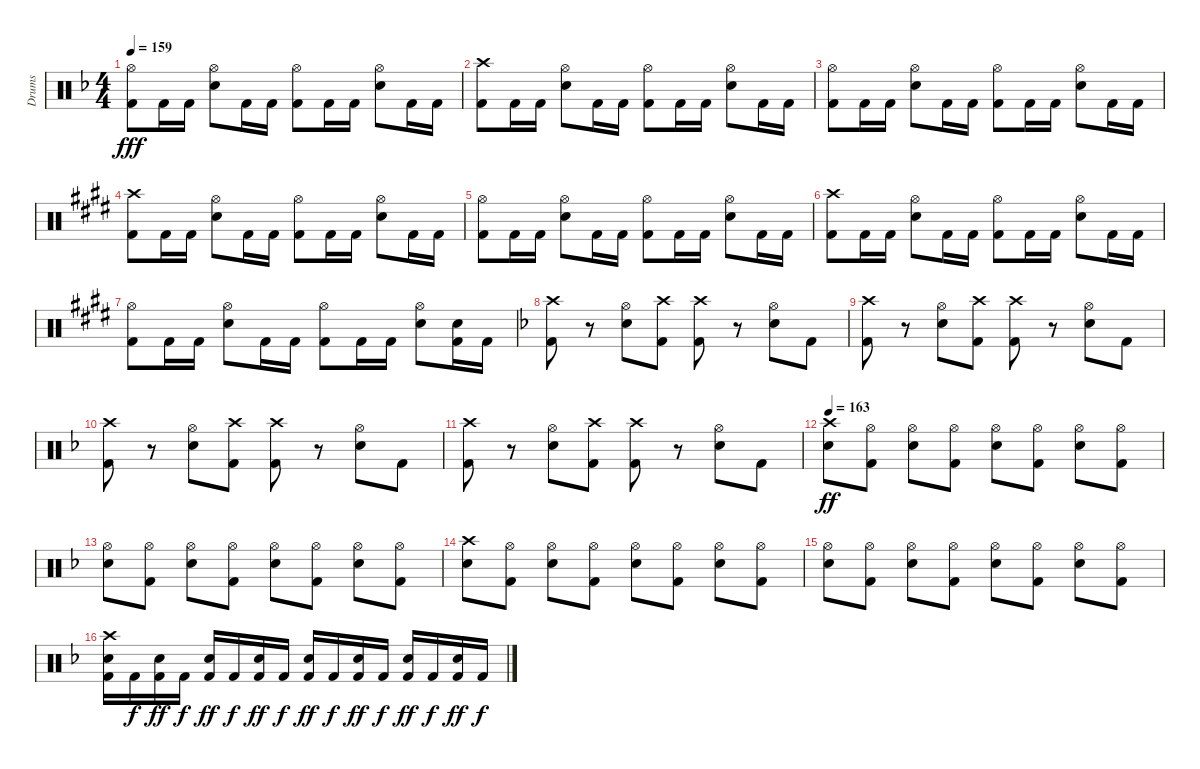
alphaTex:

\track ("Drums" "Drums") {instrument percussion}
\staff {score}
\articulation defaults
\ts (4 4)
\tempo 159
\clef neutral
\ks f
("Hi-Hat (open)" "Kick (hit) 2").8{dy fff} "Kick (hit) 2".16 "Kick (hit) 2".16 ("Hi-Hat (open)" "Snare (hit) 2").8 "Kick (hit) 2".16 "Kick (hit) 2".16 ("Hi-Hat (open)" "Kick (hit) 2").8 "Kick (hit) 2".16 "Kick (hit) 2".16 ("Hi-Hat (open)" "Snare (hit) 2").8 "Kick (hit) 2".16 "Kick (hit) 2".16 |
("Crash high (hit)" "Kick (hit) 2").8 "Kick (hit) 2".16 "Kick (hit) 2".16 ("Hi-Hat (open)" "Snare (hit) 2").8 "Kick (hit) 2".16 "Kick (hit) 2".16 ("Hi-Hat (open)" "Kick (hit) 2").8 "Kick (hit) 2".16 "Kick (hit) 2".16 ("Hi-Hat (open)" "Snare (hit) 2").8 "Kick (hit) 2".16 "Kick (hit) 2".16 |
("Hi-Hat (open)" "Kick (hit) 2").8 "Kick (hit) 2".16 "Kick (hit) 2".16 ("Hi-Hat (open)" "Snare (hit) 2").8 "Kick (hit) 2".16 "Kick (hit) 2".16 ("Hi-Hat (open)" "Kick (hit) 2").8 "Kick (hit) 2".16 "Kick (hit) 2".16 ("Hi-Hat (open)" "Snare (hit) 2").8 "Kick (hit) 2".16 "Kick (hit) 2".16 |
\ks e
("Crash high (hit)" "Kick (hit) 2").8 "Kick (hit) 2".16 "Kick (hit) 2".16 ("Hi-Hat (open)" "Snare (hit) 2").8 "Kick (hit) 2".16 "Kick (hit) 2".16 ("Hi-Hat (open)" "Kick (hit) 2").8 "Kick (hit) 2".16 "Kick (hit) 2".16 ("Hi-Hat (open)" "Snare (hit) 2").8 "Kick (hit) 2".16 "Kick (hit) 2".16 |
("Hi-Hat (open)" "Kick (hit) 2").8 "Kick (hit) 2".16 "Kick (hit) 2".16 ("Hi-Hat (open)" "Snare (hit) 2").8 "Kick (hit) 2".16 "Kick (hit) 2".16 ("Hi-Hat (open)" "Kick (hit) 2").8 "Kick (hit) 2".16 "Kick (hit) 2".16 ("Hi-Hat (open)" "Snare (hit) 2").8 "Kick (hit) 2".16 "Kick (hit) 2".16 |
("Crash high (hit)" "Kick (hit) 2").8 "Kick (hit) 2".16 "Kick (hit) 2".16 ("Hi-Hat (open)" "Snare (hit) 2").8 "Kick (hit) 2".16 "Kick (hit) 2".16 ("Hi-Hat (open)" "Kick (hit) 2").8 "Kick (hit) 2".16 "Kick (hit) 2".16 ("Hi-Hat (open)" "Snare (hit) 2").8 "Kick (hit) 2".16 "Kick (hit) 2".16 |
("Hi-Hat (open)" "Kick (hit) 2").8 "Kick (hit) 2".16 "Kick (hit) 2".16 ("Hi-Hat (open)" "Snare (hit) 2").8 "Kick (hit) 2".16 "Kick (hit) 2".16 ("Hi-Hat (open)" "Kick (hit) 2").8 "Kick (hit) 2".16 "Kick (hit) 2".16 ("Hi-Hat (open)" "Snare (hit) 2").8 ("Snare (hit) 2" "Kick (hit) 2").16 "Kick (hit) 2".16 |
\ks f
("Crash high (hit)" "Kick (hit) 2").8 r.8 ("Hi-Hat (open)" "Snare (hit) 2").8 ("Crash high (hit)" "Kick (hit) 2").8 ("Crash high (hit)" "Kick (hit) 2").8 r.8 ("Hi-Hat (open)" "Snare (hit) 2").8 "Kick (hit) 2".8 |
("Crash high (hit)" "Kick (hit) 2").8 r.8 ("Hi-Hat (open)" "Snare (hit) 2").8 ("Crash high (hit)" "Kick (hit) 2").8 ("Crash high (hit)" "Kick (hit) 2").8 r.8 ("Hi-Hat (open)" "Snare (hit) 2").8 "Kick (hit) 2".8 |
("Crash high (hit)" "Kick (hit) 2").8 r.8 ("Hi-Hat (open)" "Snare (hit) 2").8 ("Crash high (hit)" "Kick (hit) 2").8 ("Crash high (hit)" "Kick (hit) 2").8 r.8 ("Hi-Hat (open)" "Snare (hit) 2").8 "Kick (hit) 2".8 |
("Crash high (hit)" "Kick (hit) 2").8 r.8 ("Hi-Hat (open)" "Snare (hit) 2").8 ("Crash high (hit)" "Kick (hit) 2").8 ("Crash high (hit)" "Kick (hit) 2").8 r.8 ("Hi-Hat (open)" "Snare (hit) 2").8 "Kick (hit) 2".8 |
\tempo 163
("Crash high (hit)" "Snare (hit) 2").8{dy ff} ("Hi-Hat (open)" "Kick (hit) 2").8 ("Hi-Hat (open)" "Snare (hit) 2").8 ("Hi-Hat (open)" "Kick (hit) 2").8 ("Hi-Hat (open)" "Snare (hit) 2").8 ("Hi-Hat (open)" "Kick (hit) 2").8 ("Hi-Hat (open)" "Snare (hit) 2").8 ("Hi-Hat (open)" "Kick (hit) 2").8 |
("Hi-Hat (open)" "Snare (hit) 2").8 ("Hi-Hat (open)" "Kick (hit) 2").8 ("Hi-Hat (open)" "Snare (hit) 2").8 ("Hi-Hat (open)" "Kick (hit) 2").8 ("Hi-Hat (open)" "Snare (hit) 2").8 ("Hi-Hat (open)" "Kick (hit) 2").8 ("Hi-Hat (open)" "Snare (hit) 2").8 ("Hi-Hat (open)" "Kick (hit) 2").8 |
("Crash high (hit)" "Snare (hit) 2").8 ("Hi-Hat (open)" "Kick (hit) 2").8 ("Hi-Hat (open)" "Snare (hit) 2").8 ("Hi-Hat (open)" "Kick (hit) 2").8 ("Hi-Hat (open)" "Snare (hit) 2").8 ("Hi-Hat (open)" "Kick (hit) 2").8 ("Hi-Hat (open)" "Snare (hit) 2").8 ("Hi-Hat (open)" "Kick (hit) 2").8 |
("Hi-Hat (open)" "Snare (hit) 2").8 ("Hi-Hat (open)" "Kick (hit) 2").8 ("Hi-Hat (open)" "Snare (hit) 2").8 ("Hi-Hat (open)" "Kick (hit) 2").8 ("Hi-Hat (open)" "Snare (hit) 2").8 ("Hi-Hat (open)" "Kick (hit) 2").8 ("Hi-Hat (open)" "Snare (hit) 2").8 ("Hi-Hat (open)" "Kick (hit) 2").8 |
("Crash high (hit)" "Snare (hit) 2" "Kick (hit) 2").16 "Kick (hit) 2".16{dy f} ("Snare (hit) 2" "Kick (hit) 2").16{dy ff} "Kick (hit) 2".16{dy f} ("Snare (hit) 2" "Kick (hit) 2").16{dy ff} "Kick (hit) 2".16{dy f} ("Snare (hit) 2" "Kick (hit) 2").16{dy ff} "Kick (hit) 2".16{dy f} ("Snare (hit) 2" "Kick (hit) 2").16{dy ff} "Kick (hit) 2".16{dy f} ("Snare (hit) 2" "Kick (hit) 2").16{dy ff} "Kick (hit) 2".16{dy f} ("Snare (hit) 2" "Kick (hit) 2").16{dy ff} "Kick (hit) 2".16{dy f} ("Snare (hit) 2" "Kick (hit) 2").16{dy ff} "Kick (hit) 2".16{dy f}
